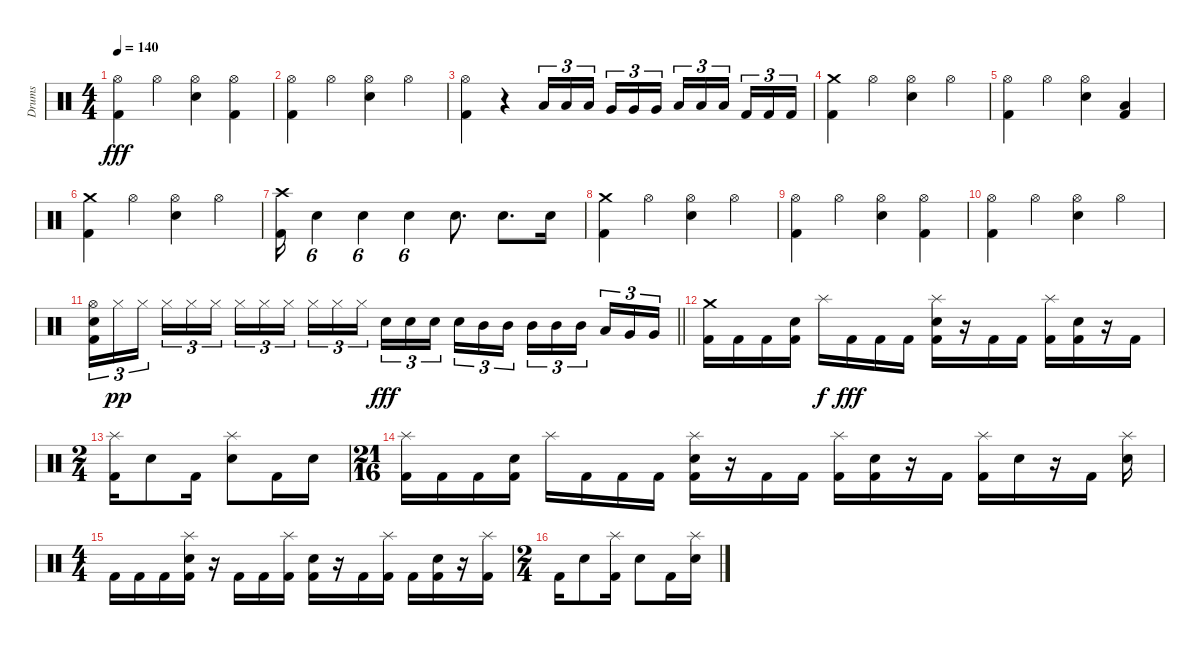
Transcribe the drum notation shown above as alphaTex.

\track ("Drums" "Drums") {instrument percussion}
\staff {score}
\articulation defaults
\ts (4 4)
\tempo 140
\clef neutral
\ks c
("Hi-Hat (open)" "Kick (hit) 2").4{dy fff} "Hi-Hat (open)".4 ("Hi-Hat (open)" "Electric Snare (hit)").4 ("Hi-Hat (open)" "Kick (hit) 2").4 |
("Hi-Hat (open)" "Kick (hit) 2").4 "Hi-Hat (open)".4 ("Hi-Hat (open)" "Electric Snare (hit)").4 "Hi-Hat (open)".4 |
("Hi-Hat (open)" "Kick (hit) 2").4 r.4 "Low Tom (hit)".16{tu (3 2)} "Low Tom (hit)".16{tu (3 2)} "Low Tom (hit)".16{tu (3 2) beam splitsecondary} "Very Low Tom (hit)".16{tu (3 2)} "Very Low Tom (hit)".16{tu (3 2)} "Very Low Tom (hit)".16{tu (3 2)} "Low Floor Tom (hit)".16{tu (3 2)} "Low Floor Tom (hit)".16{tu (3 2)} "Low Floor Tom (hit)".16{tu (3 2) beam splitsecondary} "Kick (hit) 2".16{tu (3 2)} "Kick (hit) 2".16{tu (3 2)} "Kick (hit) 2".16{tu (3 2)} |
("Crash medium (hit)" "Kick (hit) 2").4 "Hi-Hat (open)".4 ("Hi-Hat (open)" "Electric Snare (hit)").4 "Hi-Hat (open)".4 |
("Hi-Hat (open)" "Kick (hit) 2").4 "Hi-Hat (open)".4 ("Hi-Hat (open)" "Electric Snare (hit)").4 ("Low Floor Tom (hit)" "Kick (hit) 2").4 |
("Crash medium (hit)" "Kick (hit) 2").4 "Hi-Hat (open)".4 ("Hi-Hat (open)" "Electric Snare (hit)").4 "Hi-Hat (open)".4 |
("Crash high (hit)" "Kick (hit) 2").16 "Electric Snare (hit)".4{tu (6 4)} "Electric Snare (hit)".4{tu (6 4)} "Electric Snare (hit)".4{tu (6 4)} "Electric Snare (hit)".8{d} "Electric Snare (hit)".8{d} "Electric Snare (hit)".16 |
("Crash medium (hit)" "Kick (hit) 2").4 "Hi-Hat (open)".4 ("Hi-Hat (open)" "Electric Snare (hit)").4 "Hi-Hat (open)".4 |
("Hi-Hat (open)" "Kick (hit) 2").4 "Hi-Hat (open)".4 ("Hi-Hat (open)" "Electric Snare (hit)").4 ("Hi-Hat (open)" "Kick (hit) 2").4 |
("Hi-Hat (open)" "Kick (hit) 2").4 "Hi-Hat (open)".4 ("Hi-Hat (open)" "Electric Snare (hit)").4 "Hi-Hat (open)".4 |
\barLineRight lightlight
("Hi-Hat (open)" "Electric Snare (hit)" "Kick (hit) 2").16{tu (3 2)} "Hi-Hat (closed)".16{tu (3 2) dy pp} "Hi-Hat (closed)".16{tu (3 2) beam splitsecondary} "Hi-Hat (closed)".16{tu (3 2)} "Hi-Hat (closed)".16{tu (3 2)} "Hi-Hat (closed)".16{tu (3 2)} "Hi-Hat (closed)".16{tu (3 2)} "Hi-Hat (closed)".16{tu (3 2)} "Hi-Hat (closed)".16{tu (3 2) beam splitsecondary} "Hi-Hat (closed)".16{tu (3 2)} "Hi-Hat (closed)".16{tu (3 2)} "Hi-Hat (closed)".16{tu (3 2)} "Electric Snare (hit)".16{tu (3 2) dy fff} "Electric Snare (hit)".16{tu (3 2)} "Electric Snare (hit)".16{tu (3 2) beam splitsecondary} "Electric Snare (hit)".16{tu (3 2)} "Mid Tom (hit)".16{tu (3 2)} "Mid Tom (hit)".16{tu (3 2)} "Mid Tom (hit)".16{tu (3 2)} "Mid Tom (hit)".16{tu (3 2)} "Mid Tom (hit)".16{tu (3 2) beam splitsecondary} "Low Tom (hit)".16{tu (3 2)} "Very Low Tom (hit)".16{tu (3 2)} "Very Low Tom (hit)".16{tu (3 2)} |
("Crash medium (hit)" "Kick (hit) 2").16 "Kick (hit) 2".16 "Kick (hit) 2".16 ("Electric Snare (hit)" "Kick (hit) 2").16 "Splash (hit)".16{dy f} "Kick (hit) 2".16{dy fff} "Kick (hit) 2".16 "Kick (hit) 2".16 ("Splash (hit)" "Electric Snare (hit)" "Kick (hit) 2").16 r.16 "Kick (hit) 2".16 "Kick (hit) 2".16 ("Splash (hit)" "Kick (hit) 2").16 ("Electric Snare (hit)" "Kick (hit) 2").16 r.16 "Kick (hit) 2".16 |
\ts (2 4)
("Splash (hit)" "Kick (hit) 2").16 "Electric Snare (hit)".8 "Kick (hit) 2".16 ("Splash (hit)" "Electric Snare (hit)").8 "Kick (hit) 2".16 "Electric Snare (hit)".16 |
\ts (21 16)
("Splash (hit)" "Kick (hit) 2").16 "Kick (hit) 2".16 "Kick (hit) 2".16 ("Electric Snare (hit)" "Kick (hit) 2").16 "Splash (hit)".16 "Kick (hit) 2".16 "Kick (hit) 2".16 "Kick (hit) 2".16 ("Splash (hit)" "Electric Snare (hit)" "Kick (hit) 2").16 r.16 "Kick (hit) 2".16 "Kick (hit) 2".16 ("Splash (hit)" "Kick (hit) 2").16 ("Electric Snare (hit)" "Kick (hit) 2").16 r.16 "Kick (hit) 2".16 ("Splash (hit)" "Kick (hit) 2").16 "Electric Snare (hit)".16 r.16 "Kick (hit) 2".16 ("Splash (hit)" "Electric Snare (hit)").16 |
\ts (4 4)
"Kick (hit) 2".16 "Kick (hit) 2".16 "Kick (hit) 2".16 ("Splash (hit)" "Electric Snare (hit)" "Kick (hit) 2").16 r.16 "Kick (hit) 2".16 "Kick (hit) 2".16 ("Splash (hit)" "Kick (hit) 2").16 ("Electric Snare (hit)" "Kick (hit) 2").16 r.16 "Kick (hit) 2".16 ("Splash (hit)" "Kick (hit) 2").16 "Kick (hit) 2".16 ("Electric Snare (hit)" "Kick (hit) 2").16 r.16 ("Splash (hit)" "Kick (hit) 2").16 |
\ts (2 4)
"Kick (hit) 2".16 "Electric Snare (hit)".8 ("Splash (hit)" "Kick (hit) 2").16 "Electric Snare (hit)".8 "Kick (hit) 2".16 ("Splash (hit)" "Electric Snare (hit)").16
